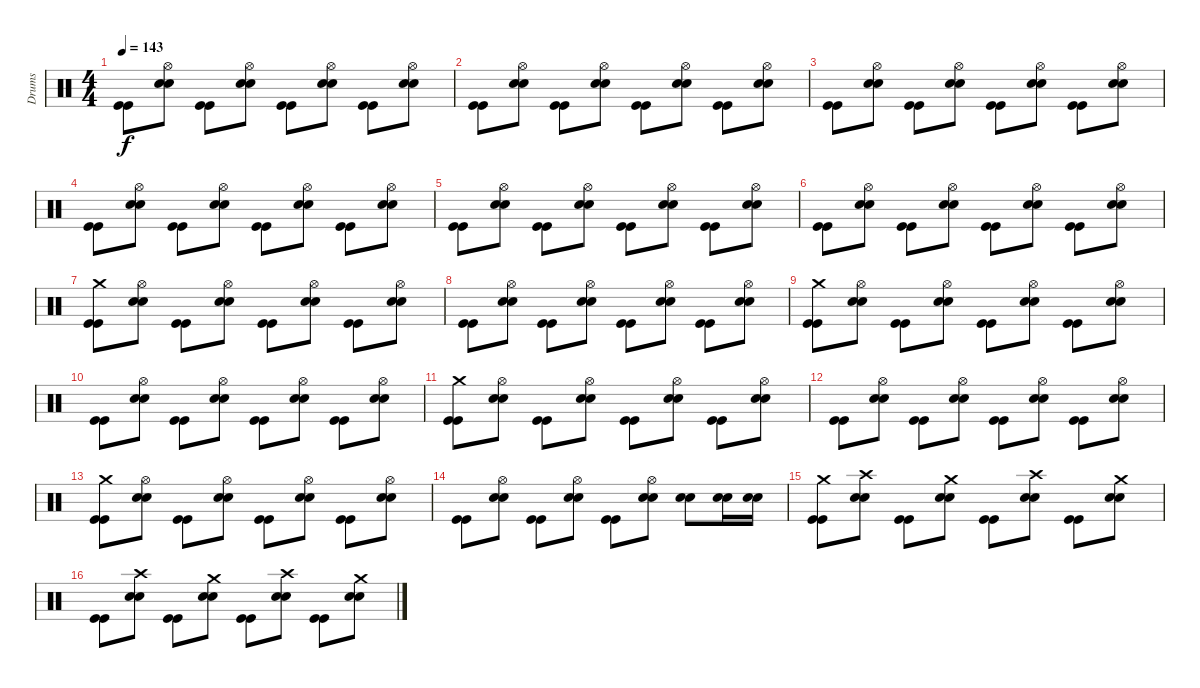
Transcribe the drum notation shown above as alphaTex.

\track ("Drums" "Drums") {instrument percussion}
\staff {score}
\articulation defaults
\ts (4 4)
\tempo 143
\clef neutral
\ks c
("Kick (hit)" "Kick (hit)").8{dy f} ("Hi-Hat (open)" "Electric Snare (hit)" "Electric Snare (hit)").8 ("Kick (hit)" "Kick (hit)").8 ("Hi-Hat (open)" "Electric Snare (hit)" "Electric Snare (hit)").8 ("Kick (hit)" "Kick (hit)").8 ("Hi-Hat (open)" "Electric Snare (hit)" "Electric Snare (hit)").8 ("Kick (hit)" "Kick (hit)").8 ("Hi-Hat (open)" "Electric Snare (hit)" "Electric Snare (hit)").8 |
("Kick (hit)" "Kick (hit)").8 ("Hi-Hat (open)" "Electric Snare (hit)" "Electric Snare (hit)").8 ("Kick (hit)" "Kick (hit)").8 ("Hi-Hat (open)" "Electric Snare (hit)" "Electric Snare (hit)").8 ("Kick (hit)" "Kick (hit)").8 ("Hi-Hat (open)" "Electric Snare (hit)" "Electric Snare (hit)").8 ("Kick (hit)" "Kick (hit)").8 ("Hi-Hat (open)" "Electric Snare (hit)" "Electric Snare (hit)").8 |
("Kick (hit)" "Kick (hit)").8 ("Hi-Hat (open)" "Electric Snare (hit)" "Electric Snare (hit)").8 ("Kick (hit)" "Kick (hit)").8 ("Hi-Hat (open)" "Electric Snare (hit)" "Electric Snare (hit)").8 ("Kick (hit)" "Kick (hit)").8 ("Hi-Hat (open)" "Electric Snare (hit)" "Electric Snare (hit)").8 ("Kick (hit)" "Kick (hit)").8 ("Hi-Hat (open)" "Electric Snare (hit)" "Electric Snare (hit)").8 |
("Kick (hit)" "Kick (hit)").8 ("Hi-Hat (open)" "Electric Snare (hit)" "Electric Snare (hit)").8 ("Kick (hit)" "Kick (hit)").8 ("Hi-Hat (open)" "Electric Snare (hit)" "Electric Snare (hit)").8 ("Kick (hit)" "Kick (hit)").8 ("Hi-Hat (open)" "Electric Snare (hit)" "Electric Snare (hit)").8 ("Kick (hit)" "Kick (hit)").8 ("Hi-Hat (open)" "Electric Snare (hit)" "Electric Snare (hit)").8 |
("Kick (hit)" "Kick (hit)").8 ("Hi-Hat (open)" "Electric Snare (hit)" "Electric Snare (hit)").8 ("Kick (hit)" "Kick (hit)").8 ("Hi-Hat (open)" "Electric Snare (hit)" "Electric Snare (hit)").8 ("Kick (hit)" "Kick (hit)").8 ("Hi-Hat (open)" "Electric Snare (hit)" "Electric Snare (hit)").8 ("Kick (hit)" "Kick (hit)").8 ("Hi-Hat (open)" "Electric Snare (hit)" "Electric Snare (hit)").8 |
("Kick (hit)" "Kick (hit)").8 ("Hi-Hat (open)" "Electric Snare (hit)" "Electric Snare (hit)").8 ("Kick (hit)" "Kick (hit)").8 ("Hi-Hat (open)" "Electric Snare (hit)" "Electric Snare (hit)").8 ("Kick (hit)" "Kick (hit)").8 ("Hi-Hat (open)" "Electric Snare (hit)" "Electric Snare (hit)").8 ("Kick (hit)" "Kick (hit)").8 ("Hi-Hat (open)" "Electric Snare (hit)" "Electric Snare (hit)").8 |
("Crash medium (hit)" "Kick (hit)" "Kick (hit)").8 ("Hi-Hat (open)" "Electric Snare (hit)" "Electric Snare (hit)").8 ("Kick (hit)" "Kick (hit)").8 ("Hi-Hat (open)" "Electric Snare (hit)" "Electric Snare (hit)").8 ("Kick (hit)" "Kick (hit)").8 ("Hi-Hat (open)" "Electric Snare (hit)" "Electric Snare (hit)").8 ("Kick (hit)" "Kick (hit)").8 ("Hi-Hat (open)" "Electric Snare (hit)" "Electric Snare (hit)").8 |
("Kick (hit)" "Kick (hit)").8 ("Hi-Hat (open)" "Electric Snare (hit)" "Electric Snare (hit)").8 ("Kick (hit)" "Kick (hit)").8 ("Hi-Hat (open)" "Electric Snare (hit)" "Electric Snare (hit)").8 ("Kick (hit)" "Kick (hit)").8 ("Hi-Hat (open)" "Electric Snare (hit)" "Electric Snare (hit)").8 ("Kick (hit)" "Kick (hit)").8 ("Hi-Hat (open)" "Electric Snare (hit)" "Electric Snare (hit)").8 |
("Crash medium (hit)" "Kick (hit)" "Kick (hit)").8 ("Hi-Hat (open)" "Electric Snare (hit)" "Electric Snare (hit)").8 ("Kick (hit)" "Kick (hit)").8 ("Hi-Hat (open)" "Electric Snare (hit)" "Electric Snare (hit)").8 ("Kick (hit)" "Kick (hit)").8 ("Hi-Hat (open)" "Electric Snare (hit)" "Electric Snare (hit)").8 ("Kick (hit)" "Kick (hit)").8 ("Hi-Hat (open)" "Electric Snare (hit)" "Electric Snare (hit)").8 |
("Kick (hit)" "Kick (hit)").8 ("Hi-Hat (open)" "Electric Snare (hit)" "Electric Snare (hit)").8 ("Kick (hit)" "Kick (hit)").8 ("Hi-Hat (open)" "Electric Snare (hit)" "Electric Snare (hit)").8 ("Kick (hit)" "Kick (hit)").8 ("Hi-Hat (open)" "Electric Snare (hit)" "Electric Snare (hit)").8 ("Kick (hit)" "Kick (hit)").8 ("Hi-Hat (open)" "Electric Snare (hit)" "Electric Snare (hit)").8 |
("Crash medium (hit)" "Kick (hit)" "Kick (hit)").8 ("Hi-Hat (open)" "Electric Snare (hit)" "Electric Snare (hit)").8 ("Kick (hit)" "Kick (hit)").8 ("Hi-Hat (open)" "Electric Snare (hit)" "Electric Snare (hit)").8 ("Kick (hit)" "Kick (hit)").8 ("Hi-Hat (open)" "Electric Snare (hit)" "Electric Snare (hit)").8 ("Kick (hit)" "Kick (hit)").8 ("Hi-Hat (open)" "Electric Snare (hit)" "Electric Snare (hit)").8 |
("Kick (hit)" "Kick (hit)").8 ("Hi-Hat (open)" "Electric Snare (hit)" "Electric Snare (hit)").8 ("Kick (hit)" "Kick (hit)").8 ("Hi-Hat (open)" "Electric Snare (hit)" "Electric Snare (hit)").8 ("Kick (hit)" "Kick (hit)").8 ("Hi-Hat (open)" "Electric Snare (hit)" "Electric Snare (hit)").8 ("Kick (hit)" "Kick (hit)").8 ("Hi-Hat (open)" "Electric Snare (hit)" "Electric Snare (hit)").8 |
("Crash medium (hit)" "Kick (hit)" "Kick (hit)").8 ("Hi-Hat (open)" "Electric Snare (hit)" "Electric Snare (hit)").8 ("Kick (hit)" "Kick (hit)").8 ("Hi-Hat (open)" "Electric Snare (hit)" "Electric Snare (hit)").8 ("Kick (hit)" "Kick (hit)").8 ("Hi-Hat (open)" "Electric Snare (hit)" "Electric Snare (hit)").8 ("Kick (hit)" "Kick (hit)").8 ("Hi-Hat (open)" "Electric Snare (hit)" "Electric Snare (hit)").8 |
("Kick (hit)" "Kick (hit)").8 ("Hi-Hat (open)" "Electric Snare (hit)" "Electric Snare (hit)").8 ("Kick (hit)" "Kick (hit)").8 ("Hi-Hat (open)" "Electric Snare (hit)" "Electric Snare (hit)").8 ("Kick (hit)" "Kick (hit)").8 ("Hi-Hat (open)" "Electric Snare (hit)" "Electric Snare (hit)").8 ("Electric Snare (hit)" "Electric Snare (hit)").8 ("Electric Snare (hit)" "Electric Snare (hit)").16 ("Electric Snare (hit)" "Electric Snare (hit)").16 |
("Crash medium (hit)" "Kick (hit)" "Kick (hit)").8 ("Crash high (hit)" "Electric Snare (hit)" "Electric Snare (hit)").8 ("Kick (hit)" "Kick (hit)").8 ("Crash medium (hit)" "Electric Snare (hit)" "Electric Snare (hit)").8 ("Kick (hit)" "Kick (hit)").8 ("Crash high (hit)" "Electric Snare (hit)" "Electric Snare (hit)").8 ("Kick (hit)" "Kick (hit)").8 ("Crash medium (hit)" "Electric Snare (hit)" "Electric Snare (hit)").8 |
("Kick (hit)" "Kick (hit)").8 ("Crash high (hit)" "Electric Snare (hit)" "Electric Snare (hit)").8 ("Kick (hit)" "Kick (hit)").8 ("Crash medium (hit)" "Electric Snare (hit)" "Electric Snare (hit)").8 ("Kick (hit)" "Kick (hit)").8 ("Crash high (hit)" "Electric Snare (hit)" "Electric Snare (hit)").8 ("Kick (hit)" "Kick (hit)").8 ("Crash medium (hit)" "Electric Snare (hit)" "Electric Snare (hit)").8
